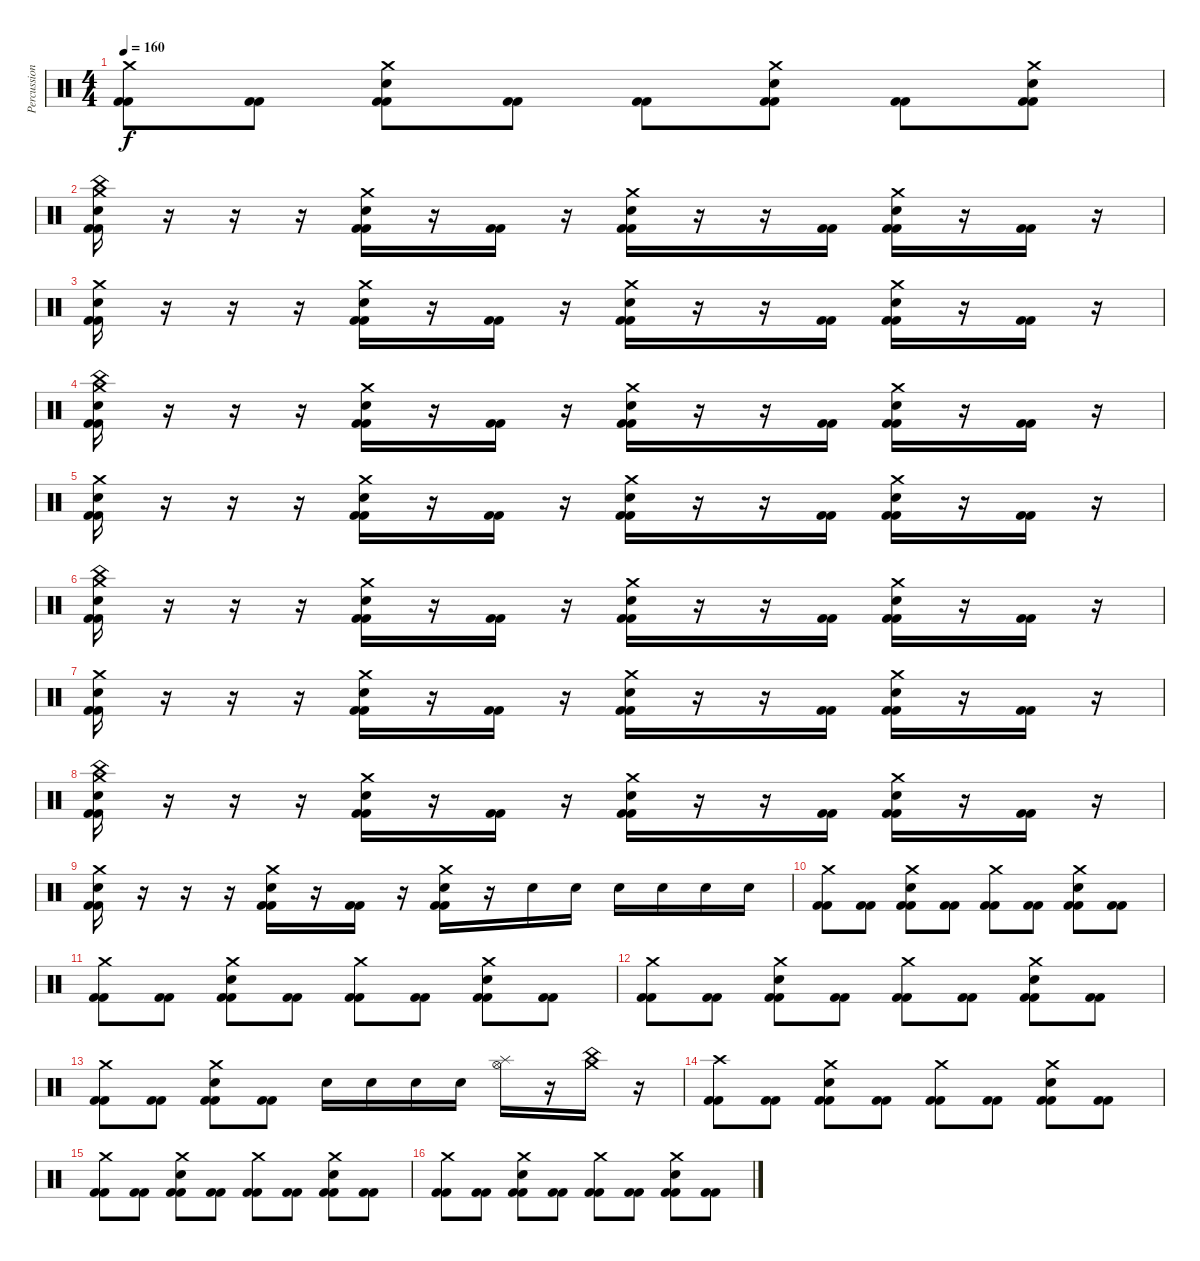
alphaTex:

\track ("Percussion" "Percussion") {instrument percussion}
\staff {score}
\articulation defaults
\ts (4 4)
\tempo 160
\clef neutral
\ks c
("Crash medium (hit)" "Kick (hit) 2" "Kick (hit) 2").8{dy f} ("Kick (hit) 2" "Kick (hit) 2").8 ("Crash medium (hit)" "Electric Snare (hit)" "Kick (hit) 2" "Kick (hit) 2").8 ("Kick (hit) 2" "Kick (hit) 2").8 ("Kick (hit) 2" "Kick (hit) 2").8 ("Crash medium (hit)" "Electric Snare (hit)" "Kick (hit) 2" "Kick (hit) 2").8 ("Kick (hit) 2" "Kick (hit) 2").8 ("Crash medium (hit)" "Electric Snare (hit)" "Kick (hit) 2" "Kick (hit) 2").8 |
("China (hit)" "Crash medium (hit)" "Electric Snare (hit)" "Kick (hit) 2" "Kick (hit) 2").16 r.16 r.16 r.16 ("Crash medium (hit)" "Electric Snare (hit)" "Kick (hit) 2" "Kick (hit) 2").16 r.16 ("Kick (hit) 2" "Kick (hit) 2").16 r.16 ("Crash medium (hit)" "Electric Snare (hit)" "Kick (hit) 2" "Kick (hit) 2").16 r.16 r.16 ("Kick (hit) 2" "Kick (hit) 2").16 ("Crash medium (hit)" "Electric Snare (hit)" "Kick (hit) 2" "Kick (hit) 2").16 r.16 ("Kick (hit) 2" "Kick (hit) 2").16 r.16 |
("Crash medium (hit)" "Electric Snare (hit)" "Kick (hit) 2" "Kick (hit) 2").16 r.16 r.16 r.16 ("Crash medium (hit)" "Electric Snare (hit)" "Kick (hit) 2" "Kick (hit) 2").16 r.16 ("Kick (hit) 2" "Kick (hit) 2").16 r.16 ("Crash medium (hit)" "Electric Snare (hit)" "Kick (hit) 2" "Kick (hit) 2").16 r.16 r.16 ("Kick (hit) 2" "Kick (hit) 2").16 ("Crash medium (hit)" "Electric Snare (hit)" "Kick (hit) 2" "Kick (hit) 2").16 r.16 ("Kick (hit) 2" "Kick (hit) 2").16 r.16 |
("China (hit)" "Crash medium (hit)" "Electric Snare (hit)" "Kick (hit) 2" "Kick (hit) 2").16 r.16 r.16 r.16 ("Crash medium (hit)" "Electric Snare (hit)" "Kick (hit) 2" "Kick (hit) 2").16 r.16 ("Kick (hit) 2" "Kick (hit) 2").16 r.16 ("Crash medium (hit)" "Electric Snare (hit)" "Kick (hit) 2" "Kick (hit) 2").16 r.16 r.16 ("Kick (hit) 2" "Kick (hit) 2").16 ("Crash medium (hit)" "Electric Snare (hit)" "Kick (hit) 2" "Kick (hit) 2").16 r.16 ("Kick (hit) 2" "Kick (hit) 2").16 r.16 |
("Crash medium (hit)" "Electric Snare (hit)" "Kick (hit) 2" "Kick (hit) 2").16 r.16 r.16 r.16 ("Crash medium (hit)" "Electric Snare (hit)" "Kick (hit) 2" "Kick (hit) 2").16 r.16 ("Kick (hit) 2" "Kick (hit) 2").16 r.16 ("Crash medium (hit)" "Electric Snare (hit)" "Kick (hit) 2" "Kick (hit) 2").16 r.16 r.16 ("Kick (hit) 2" "Kick (hit) 2").16 ("Crash medium (hit)" "Electric Snare (hit)" "Kick (hit) 2" "Kick (hit) 2").16 r.16 ("Kick (hit) 2" "Kick (hit) 2").16 r.16 |
("China (hit)" "Crash medium (hit)" "Electric Snare (hit)" "Kick (hit) 2" "Kick (hit) 2").16 r.16 r.16 r.16 ("Crash medium (hit)" "Electric Snare (hit)" "Kick (hit) 2" "Kick (hit) 2").16 r.16 ("Kick (hit) 2" "Kick (hit) 2").16 r.16 ("Crash medium (hit)" "Electric Snare (hit)" "Kick (hit) 2" "Kick (hit) 2").16 r.16 r.16 ("Kick (hit) 2" "Kick (hit) 2").16 ("Crash medium (hit)" "Electric Snare (hit)" "Kick (hit) 2" "Kick (hit) 2").16 r.16 ("Kick (hit) 2" "Kick (hit) 2").16 r.16 |
("Crash medium (hit)" "Electric Snare (hit)" "Kick (hit) 2" "Kick (hit) 2").16 r.16 r.16 r.16 ("Crash medium (hit)" "Electric Snare (hit)" "Kick (hit) 2" "Kick (hit) 2").16 r.16 ("Kick (hit) 2" "Kick (hit) 2").16 r.16 ("Crash medium (hit)" "Electric Snare (hit)" "Kick (hit) 2" "Kick (hit) 2").16 r.16 r.16 ("Kick (hit) 2" "Kick (hit) 2").16 ("Crash medium (hit)" "Electric Snare (hit)" "Kick (hit) 2" "Kick (hit) 2").16 r.16 ("Kick (hit) 2" "Kick (hit) 2").16 r.16 |
("China (hit)" "Crash medium (hit)" "Electric Snare (hit)" "Kick (hit) 2" "Kick (hit) 2").16 r.16 r.16 r.16 ("Crash medium (hit)" "Electric Snare (hit)" "Kick (hit) 2" "Kick (hit) 2").16 r.16 ("Kick (hit) 2" "Kick (hit) 2").16 r.16 ("Crash medium (hit)" "Electric Snare (hit)" "Kick (hit) 2" "Kick (hit) 2").16 r.16 r.16 ("Kick (hit) 2" "Kick (hit) 2").16 ("Crash medium (hit)" "Electric Snare (hit)" "Kick (hit) 2" "Kick (hit) 2").16 r.16 ("Kick (hit) 2" "Kick (hit) 2").16 r.16 |
("Crash medium (hit)" "Electric Snare (hit)" "Kick (hit) 2" "Kick (hit) 2").16 r.16 r.16 r.16 ("Crash medium (hit)" "Electric Snare (hit)" "Kick (hit) 2" "Kick (hit) 2").16 r.16 ("Kick (hit) 2" "Kick (hit) 2").16 r.16 ("Crash medium (hit)" "Electric Snare (hit)" "Kick (hit) 2" "Kick (hit) 2").16 r.16 "Electric Snare (hit)".16 "Electric Snare (hit)".16 "Electric Snare (hit)".16 "Electric Snare (hit)".16 "Electric Snare (hit)".16 "Electric Snare (hit)".16 |
("Crash medium (hit)" "Kick (hit) 2" "Kick (hit) 2").8 ("Kick (hit) 2" "Kick (hit) 2").8 ("Crash medium (hit)" "Electric Snare (hit)" "Kick (hit) 2" "Kick (hit) 2").8 ("Kick (hit) 2" "Kick (hit) 2").8 ("Crash medium (hit)" "Kick (hit) 2" "Kick (hit) 2").8 ("Kick (hit) 2" "Kick (hit) 2").8 ("Crash medium (hit)" "Electric Snare (hit)" "Kick (hit) 2" "Kick (hit) 2").8 ("Kick (hit) 2" "Kick (hit) 2").8 |
("Crash medium (hit)" "Kick (hit) 2" "Kick (hit) 2").8 ("Kick (hit) 2" "Kick (hit) 2").8 ("Crash medium (hit)" "Electric Snare (hit)" "Kick (hit) 2" "Kick (hit) 2").8 ("Kick (hit) 2" "Kick (hit) 2").8 ("Crash medium (hit)" "Kick (hit) 2" "Kick (hit) 2").8 ("Kick (hit) 2" "Kick (hit) 2").8 ("Crash medium (hit)" "Electric Snare (hit)" "Kick (hit) 2" "Kick (hit) 2").8 ("Kick (hit) 2" "Kick (hit) 2").8 |
("Crash medium (hit)" "Kick (hit) 2" "Kick (hit) 2").8 ("Kick (hit) 2" "Kick (hit) 2").8 ("Crash medium (hit)" "Electric Snare (hit)" "Kick (hit) 2" "Kick (hit) 2").8 ("Kick (hit) 2" "Kick (hit) 2").8 ("Crash medium (hit)" "Kick (hit) 2" "Kick (hit) 2").8 ("Kick (hit) 2" "Kick (hit) 2").8 ("Crash medium (hit)" "Electric Snare (hit)" "Kick (hit) 2" "Kick (hit) 2").8 ("Kick (hit) 2" "Kick (hit) 2").8 |
("Crash medium (hit)" "Kick (hit) 2" "Kick (hit) 2").8 ("Kick (hit) 2" "Kick (hit) 2").8 ("Crash medium (hit)" "Electric Snare (hit)" "Kick (hit) 2" "Kick (hit) 2").8 ("Kick (hit) 2" "Kick (hit) 2").8 "Electric Snare (hit)".16 "Electric Snare (hit)".16 "Electric Snare (hit)".16 "Electric Snare (hit)".16 ("Splash (hit)" "Hi-Hat (open)").16 r.16 ("Crash medium (hit)" "China (hit)").16 r.16 |
("Crash high (hit)" "Kick (hit) 2" "Kick (hit) 2").8 ("Kick (hit) 2" "Kick (hit) 2").8 ("Crash medium (hit)" "Electric Snare (hit)" "Kick (hit) 2" "Kick (hit) 2").8 ("Kick (hit) 2" "Kick (hit) 2").8 ("Crash medium (hit)" "Kick (hit) 2" "Kick (hit) 2").8 ("Kick (hit) 2" "Kick (hit) 2").8 ("Crash medium (hit)" "Electric Snare (hit)" "Kick (hit) 2" "Kick (hit) 2").8 ("Kick (hit) 2" "Kick (hit) 2").8 |
("Crash medium (hit)" "Kick (hit) 2" "Kick (hit) 2").8 ("Kick (hit) 2" "Kick (hit) 2").8 ("Crash medium (hit)" "Electric Snare (hit)" "Kick (hit) 2" "Kick (hit) 2").8 ("Kick (hit) 2" "Kick (hit) 2").8 ("Crash medium (hit)" "Kick (hit) 2" "Kick (hit) 2").8 ("Kick (hit) 2" "Kick (hit) 2").8 ("Crash medium (hit)" "Electric Snare (hit)" "Kick (hit) 2" "Kick (hit) 2").8 ("Kick (hit) 2" "Kick (hit) 2").8 |
("Crash medium (hit)" "Kick (hit) 2" "Kick (hit) 2").8 ("Kick (hit) 2" "Kick (hit) 2").8 ("Crash medium (hit)" "Electric Snare (hit)" "Kick (hit) 2" "Kick (hit) 2").8 ("Kick (hit) 2" "Kick (hit) 2").8 ("Crash medium (hit)" "Kick (hit) 2" "Kick (hit) 2").8 ("Kick (hit) 2" "Kick (hit) 2").8 ("Crash medium (hit)" "Electric Snare (hit)" "Kick (hit) 2" "Kick (hit) 2").8 ("Kick (hit) 2" "Kick (hit) 2").8
